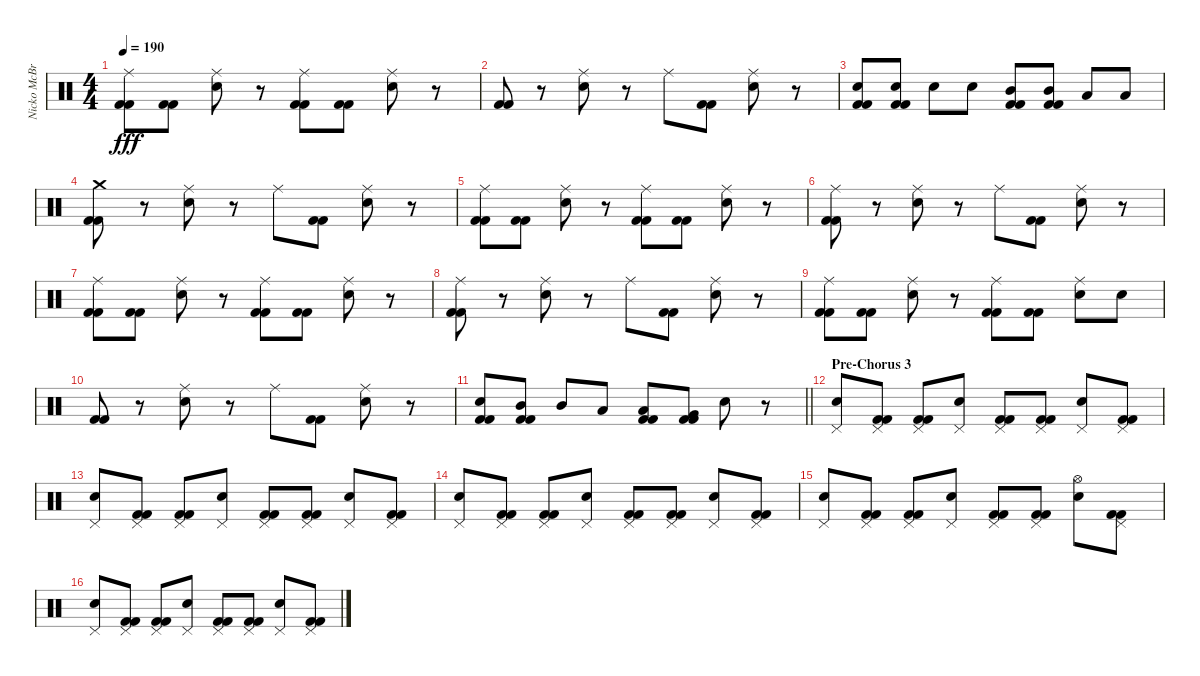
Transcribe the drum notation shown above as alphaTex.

\track ("Nicko McBrain" "Nicko McBr") {instrument percussion}
\staff {score}
\articulation defaults
\ts (4 4)
\tempo 190
\clef neutral
\ks c
("Ride (middle)" "Kick (hit) 2" "Kick (hit) 2").8{dy fff} ("Kick (hit) 2" "Kick (hit) 2").8 ("Snare (hit) 2" "Ride (middle)").8 r.8 ("Ride (middle)" "Kick (hit) 2" "Kick (hit) 2").8 ("Kick (hit) 2" "Kick (hit) 2").8 ("Snare (hit) 2" "Ride (middle)").8 r.8 |
("Kick (hit) 2" "Kick (hit) 2").8 r.8 ("Snare (hit) 2" "Ride (middle)").8 r.8 "Ride (middle)".8 ("Kick (hit) 2" "Kick (hit) 2").8 ("Snare (hit) 2" "Ride (middle)").8 r.8 |
("Snare (hit) 2" "Kick (hit) 2" "Kick (hit) 2").8 ("Snare (hit) 2" "Kick (hit) 2" "Kick (hit) 2").8 "Snare (hit) 2".8 "Snare (hit) 2".8 ("Mid Tom (hit)" "Kick (hit) 2" "Kick (hit) 2").8 ("Mid Tom (hit)" "Kick (hit) 2" "Kick (hit) 2").8 "Low Tom (hit)".8 "Low Tom (hit)".8 |
("Crash medium (hit)" "Kick (hit) 2" "Kick (hit) 2").8 r.8 ("Snare (hit) 2" "Ride (middle)").8 r.8 "Ride (middle)".8 ("Kick (hit) 2" "Kick (hit) 2").8 ("Snare (hit) 2" "Ride (middle)").8 r.8 |
("Ride (middle)" "Kick (hit) 2" "Kick (hit) 2").8 ("Kick (hit) 2" "Kick (hit) 2").8 ("Snare (hit) 2" "Ride (middle)").8 r.8 ("Ride (middle)" "Kick (hit) 2" "Kick (hit) 2").8 ("Kick (hit) 2" "Kick (hit) 2").8 ("Snare (hit) 2" "Ride (middle)").8 r.8 |
("Ride (middle)" "Kick (hit) 2" "Kick (hit) 2").8 r.8 ("Snare (hit) 2" "Ride (middle)").8 r.8 "Ride (middle)".8 ("Kick (hit) 2" "Kick (hit) 2").8 ("Snare (hit) 2" "Ride (middle)").8 r.8 |
("Ride (middle)" "Kick (hit) 2" "Kick (hit) 2").8 ("Kick (hit) 2" "Kick (hit) 2").8 ("Snare (hit) 2" "Ride (middle)").8 r.8 ("Ride (middle)" "Kick (hit) 2" "Kick (hit) 2").8 ("Kick (hit) 2" "Kick (hit) 2").8 ("Snare (hit) 2" "Ride (middle)").8 r.8 |
("Ride (middle)" "Kick (hit) 2" "Kick (hit) 2").8 r.8 ("Snare (hit) 2" "Ride (middle)").8 r.8 "Ride (middle)".8 ("Kick (hit) 2" "Kick (hit) 2").8 ("Snare (hit) 2" "Ride (middle)").8 r.8 |
("Ride (middle)" "Kick (hit) 2" "Kick (hit) 2").8 ("Kick (hit) 2" "Kick (hit) 2").8 ("Snare (hit) 2" "Ride (middle)").8 r.8 ("Ride (middle)" "Kick (hit) 2" "Kick (hit) 2").8 ("Kick (hit) 2" "Kick (hit) 2").8 ("Snare (hit) 2" "Ride (middle)").8 "Snare (hit) 2".8 |
("Kick (hit) 2" "Kick (hit) 2").8 r.8 ("Snare (hit) 2" "Ride (middle)").8 r.8 "Ride (middle)".8 ("Kick (hit) 2" "Kick (hit) 2").8 ("Snare (hit) 2" "Ride (middle)").8 r.8 |
\barLineRight lightlight
("Snare (hit) 2" "Kick (hit) 2" "Kick (hit) 2").8 ("Mid Tom (hit)" "Kick (hit) 2" "Kick (hit) 2").8 "Mid Tom (hit)".8 "Low Tom (hit)".8 ("Low Tom (hit)" "Kick (hit) 2" "Kick (hit) 2").8 ("Very Low Tom (hit)" "Kick (hit) 2" "Kick (hit) 2").8 "Snare (hit) 2".8 r.8 |
\section ("" "Pre-Chorus 3")
("Snare (hit) 2" "Pedal Hi-Hat (hit)").8 ("Pedal Hi-Hat (hit)" "Kick (hit) 2" "Kick (hit) 2").8 ("Pedal Hi-Hat (hit)" "Kick (hit) 2" "Kick (hit) 2").8 ("Snare (hit) 2" "Pedal Hi-Hat (hit)").8 ("Pedal Hi-Hat (hit)" "Kick (hit) 2" "Kick (hit) 2").8 ("Pedal Hi-Hat (hit)" "Kick (hit) 2" "Kick (hit) 2").8 ("Snare (hit) 2" "Pedal Hi-Hat (hit)").8 ("Pedal Hi-Hat (hit)" "Kick (hit) 2" "Kick (hit) 2").8 |
("Snare (hit) 2" "Pedal Hi-Hat (hit)").8 ("Pedal Hi-Hat (hit)" "Kick (hit) 2" "Kick (hit) 2").8 ("Pedal Hi-Hat (hit)" "Kick (hit) 2" "Kick (hit) 2").8 ("Snare (hit) 2" "Pedal Hi-Hat (hit)").8 ("Pedal Hi-Hat (hit)" "Kick (hit) 2" "Kick (hit) 2").8 ("Pedal Hi-Hat (hit)" "Kick (hit) 2" "Kick (hit) 2").8 ("Snare (hit) 2" "Pedal Hi-Hat (hit)").8 ("Pedal Hi-Hat (hit)" "Kick (hit) 2" "Kick (hit) 2").8 |
("Snare (hit) 2" "Pedal Hi-Hat (hit)").8 ("Pedal Hi-Hat (hit)" "Kick (hit) 2" "Kick (hit) 2").8 ("Pedal Hi-Hat (hit)" "Kick (hit) 2" "Kick (hit) 2").8 ("Snare (hit) 2" "Pedal Hi-Hat (hit)").8 ("Pedal Hi-Hat (hit)" "Kick (hit) 2" "Kick (hit) 2").8 ("Pedal Hi-Hat (hit)" "Kick (hit) 2" "Kick (hit) 2").8 ("Snare (hit) 2" "Pedal Hi-Hat (hit)").8 ("Pedal Hi-Hat (hit)" "Kick (hit) 2" "Kick (hit) 2").8 |
("Snare (hit) 2" "Pedal Hi-Hat (hit)").8 ("Pedal Hi-Hat (hit)" "Kick (hit) 2" "Kick (hit) 2").8 ("Pedal Hi-Hat (hit)" "Kick (hit) 2" "Kick (hit) 2").8 ("Snare (hit) 2" "Pedal Hi-Hat (hit)").8 ("Pedal Hi-Hat (hit)" "Kick (hit) 2" "Kick (hit) 2").8 ("Pedal Hi-Hat (hit)" "Kick (hit) 2" "Kick (hit) 2").8 ("Snare (hit) 2" "Hi-Hat (open)").8 ("Pedal Hi-Hat (hit)" "Kick (hit) 2" "Kick (hit) 2").8 |
("Snare (hit) 2" "Pedal Hi-Hat (hit)").8 ("Pedal Hi-Hat (hit)" "Kick (hit) 2" "Kick (hit) 2").8 ("Pedal Hi-Hat (hit)" "Kick (hit) 2" "Kick (hit) 2").8 ("Snare (hit) 2" "Pedal Hi-Hat (hit)").8 ("Pedal Hi-Hat (hit)" "Kick (hit) 2" "Kick (hit) 2").8 ("Pedal Hi-Hat (hit)" "Kick (hit) 2" "Kick (hit) 2").8 ("Snare (hit) 2" "Pedal Hi-Hat (hit)").8 ("Pedal Hi-Hat (hit)" "Kick (hit) 2" "Kick (hit) 2").8
